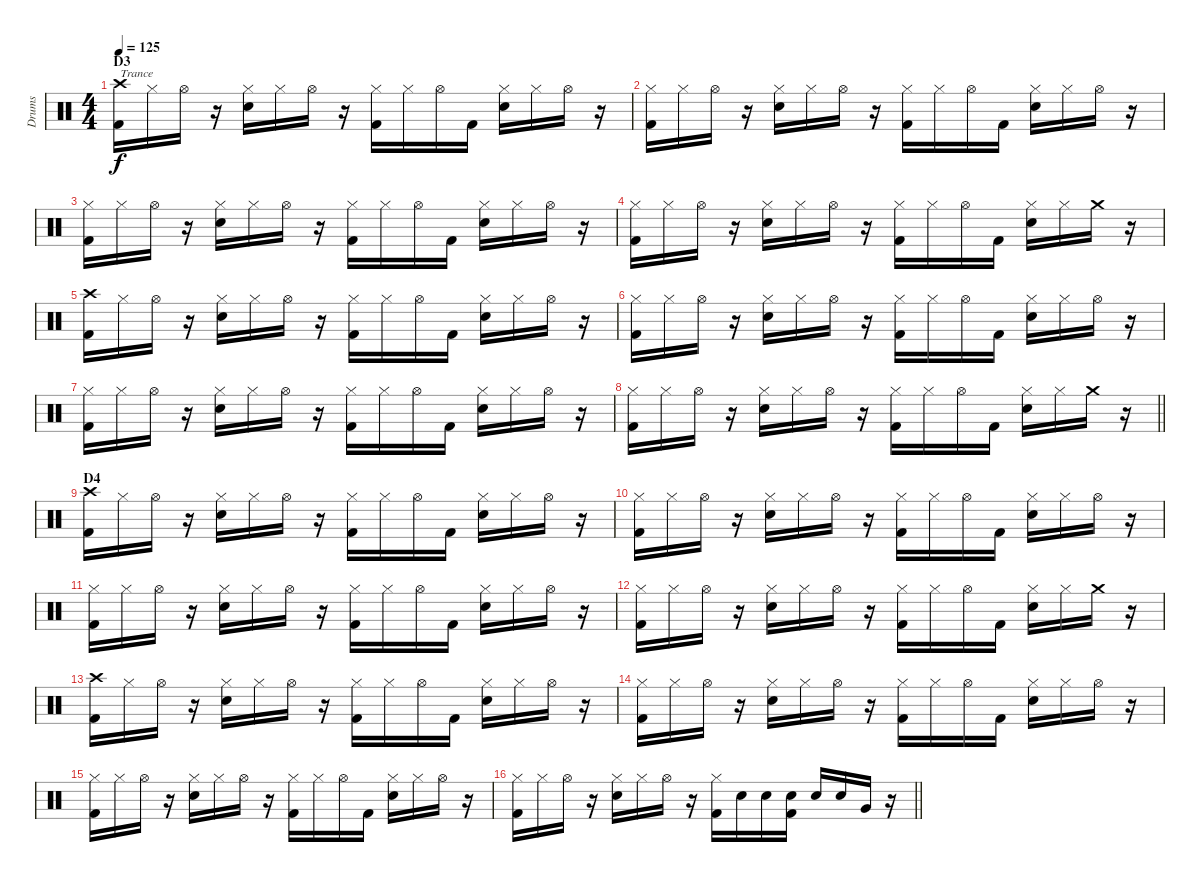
\track ("Drums" "Drums") {instrument percussion}
\staff {score}
\articulation defaults
\ts (4 4)
\section ("" "D3")
\tempo 125
\clef neutral
\ks c
("Crash high (hit)" "Kick (hit) 2").16{txt "Trance" dy f} "Hi-Hat (closed)".16 "Hi-Hat (open)".16 r.16 ("Hi-Hat (closed)" "Electric Snare (hit)").16 "Hi-Hat (closed)".16 "Hi-Hat (open)".16 r.16 ("Hi-Hat (closed)" "Kick (hit) 2").16 "Hi-Hat (closed)".16 "Hi-Hat (open)".16 "Kick (hit) 2".16 ("Hi-Hat (closed)" "Electric Snare (hit)").16 "Hi-Hat (closed)".16 "Hi-Hat (open)".16 r.16 |
("Hi-Hat (closed)" "Kick (hit) 2").16 "Hi-Hat (closed)".16 "Hi-Hat (open)".16 r.16 ("Hi-Hat (closed)" "Electric Snare (hit)").16 "Hi-Hat (closed)".16 "Hi-Hat (open)".16 r.16 ("Hi-Hat (closed)" "Kick (hit) 2").16 "Hi-Hat (closed)".16 "Hi-Hat (open)".16 "Kick (hit) 2".16 ("Hi-Hat (closed)" "Electric Snare (hit)").16 "Hi-Hat (closed)".16 "Hi-Hat (open)".16 r.16 |
("Hi-Hat (closed)" "Kick (hit) 2").16 "Hi-Hat (closed)".16 "Hi-Hat (open)".16 r.16 ("Hi-Hat (closed)" "Electric Snare (hit)").16 "Hi-Hat (closed)".16 "Hi-Hat (open)".16 r.16 ("Hi-Hat (closed)" "Kick (hit) 2").16 "Hi-Hat (closed)".16 "Hi-Hat (open)".16 "Kick (hit) 2".16 ("Hi-Hat (closed)" "Electric Snare (hit)").16 "Hi-Hat (closed)".16 "Hi-Hat (open)".16 r.16 |
("Hi-Hat (closed)" "Kick (hit) 2").16 "Hi-Hat (closed)".16 "Hi-Hat (open)".16 r.16 ("Hi-Hat (closed)" "Electric Snare (hit)").16 "Hi-Hat (closed)".16 "Hi-Hat (open)".16 r.16 ("Hi-Hat (closed)" "Kick (hit) 2").16 "Hi-Hat (closed)".16 "Hi-Hat (open)".16 "Kick (hit) 2".16 ("Hi-Hat (closed)" "Electric Snare (hit)").16 "Hi-Hat (closed)".16 "Crash medium (hit)".16 r.16 |
("Crash high (hit)" "Kick (hit) 2").16 "Hi-Hat (closed)".16 "Hi-Hat (open)".16 r.16 ("Hi-Hat (closed)" "Electric Snare (hit)").16 "Hi-Hat (closed)".16 "Hi-Hat (open)".16 r.16 ("Hi-Hat (closed)" "Kick (hit) 2").16 "Hi-Hat (closed)".16 "Hi-Hat (open)".16 "Kick (hit) 2".16 ("Hi-Hat (closed)" "Electric Snare (hit)").16 "Hi-Hat (closed)".16 "Hi-Hat (open)".16 r.16 |
("Hi-Hat (closed)" "Kick (hit) 2").16 "Hi-Hat (closed)".16 "Hi-Hat (open)".16 r.16 ("Hi-Hat (closed)" "Electric Snare (hit)").16 "Hi-Hat (closed)".16 "Hi-Hat (open)".16 r.16 ("Hi-Hat (closed)" "Kick (hit) 2").16 "Hi-Hat (closed)".16 "Hi-Hat (open)".16 "Kick (hit) 2".16 ("Hi-Hat (closed)" "Electric Snare (hit)").16 "Hi-Hat (closed)".16 "Hi-Hat (open)".16 r.16 |
("Hi-Hat (closed)" "Kick (hit) 2").16 "Hi-Hat (closed)".16 "Hi-Hat (open)".16 r.16 ("Hi-Hat (closed)" "Electric Snare (hit)").16 "Hi-Hat (closed)".16 "Hi-Hat (open)".16 r.16 ("Hi-Hat (closed)" "Kick (hit) 2").16 "Hi-Hat (closed)".16 "Hi-Hat (open)".16 "Kick (hit) 2".16 ("Hi-Hat (closed)" "Electric Snare (hit)").16 "Hi-Hat (closed)".16 "Hi-Hat (open)".16 r.16 |
\barLineRight lightlight
("Hi-Hat (closed)" "Kick (hit) 2").16 "Hi-Hat (closed)".16 "Hi-Hat (open)".16 r.16 ("Hi-Hat (closed)" "Electric Snare (hit)").16 "Hi-Hat (closed)".16 "Hi-Hat (open)".16 r.16 ("Hi-Hat (closed)" "Kick (hit) 2").16 "Hi-Hat (closed)".16 "Hi-Hat (open)".16 "Kick (hit) 2".16 ("Hi-Hat (closed)" "Electric Snare (hit)").16 "Hi-Hat (closed)".16 "Crash medium (hit)".16 r.16 |
\section ("" "D4")
("Crash high (hit)" "Kick (hit) 2").16 "Hi-Hat (closed)".16 "Hi-Hat (open)".16 r.16 ("Hi-Hat (closed)" "Electric Snare (hit)").16 "Hi-Hat (closed)".16 "Hi-Hat (open)".16 r.16 ("Hi-Hat (closed)" "Kick (hit) 2").16 "Hi-Hat (closed)".16 "Hi-Hat (open)".16 "Kick (hit) 2".16 ("Hi-Hat (closed)" "Electric Snare (hit)").16 "Hi-Hat (closed)".16 "Hi-Hat (open)".16 r.16 |
("Hi-Hat (closed)" "Kick (hit) 2").16 "Hi-Hat (closed)".16 "Hi-Hat (open)".16 r.16 ("Hi-Hat (closed)" "Electric Snare (hit)").16 "Hi-Hat (closed)".16 "Hi-Hat (open)".16 r.16 ("Hi-Hat (closed)" "Kick (hit) 2").16 "Hi-Hat (closed)".16 "Hi-Hat (open)".16 "Kick (hit) 2".16 ("Hi-Hat (closed)" "Electric Snare (hit)").16 "Hi-Hat (closed)".16 "Hi-Hat (open)".16 r.16 |
("Hi-Hat (closed)" "Kick (hit) 2").16 "Hi-Hat (closed)".16 "Hi-Hat (open)".16 r.16 ("Hi-Hat (closed)" "Electric Snare (hit)").16 "Hi-Hat (closed)".16 "Hi-Hat (open)".16 r.16 ("Hi-Hat (closed)" "Kick (hit) 2").16 "Hi-Hat (closed)".16 "Hi-Hat (open)".16 "Kick (hit) 2".16 ("Hi-Hat (closed)" "Electric Snare (hit)").16 "Hi-Hat (closed)".16 "Hi-Hat (open)".16 r.16 |
("Hi-Hat (closed)" "Kick (hit) 2").16 "Hi-Hat (closed)".16 "Hi-Hat (open)".16 r.16 ("Hi-Hat (closed)" "Electric Snare (hit)").16 "Hi-Hat (closed)".16 "Hi-Hat (open)".16 r.16 ("Hi-Hat (closed)" "Kick (hit) 2").16 "Hi-Hat (closed)".16 "Hi-Hat (open)".16 "Kick (hit) 2".16 ("Hi-Hat (closed)" "Electric Snare (hit)").16 "Hi-Hat (closed)".16 "Crash medium (hit)".16 r.16 |
("Crash high (hit)" "Kick (hit) 2").16 "Hi-Hat (closed)".16 "Hi-Hat (open)".16 r.16 ("Hi-Hat (closed)" "Electric Snare (hit)").16 "Hi-Hat (closed)".16 "Hi-Hat (open)".16 r.16 ("Hi-Hat (closed)" "Kick (hit) 2").16 "Hi-Hat (closed)".16 "Hi-Hat (open)".16 "Kick (hit) 2".16 ("Hi-Hat (closed)" "Electric Snare (hit)").16 "Hi-Hat (closed)".16 "Hi-Hat (open)".16 r.16 |
("Hi-Hat (closed)" "Kick (hit) 2").16 "Hi-Hat (closed)".16 "Hi-Hat (open)".16 r.16 ("Hi-Hat (closed)" "Electric Snare (hit)").16 "Hi-Hat (closed)".16 "Hi-Hat (open)".16 r.16 ("Hi-Hat (closed)" "Kick (hit) 2").16 "Hi-Hat (closed)".16 "Hi-Hat (open)".16 "Kick (hit) 2".16 ("Hi-Hat (closed)" "Electric Snare (hit)").16 "Hi-Hat (closed)".16 "Hi-Hat (open)".16 r.16 |
("Hi-Hat (closed)" "Kick (hit) 2").16 "Hi-Hat (closed)".16 "Hi-Hat (open)".16 r.16 ("Hi-Hat (closed)" "Electric Snare (hit)").16 "Hi-Hat (closed)".16 "Hi-Hat (open)".16 r.16 ("Hi-Hat (closed)" "Kick (hit) 2").16 "Hi-Hat (closed)".16 "Hi-Hat (open)".16 "Kick (hit) 2".16 ("Hi-Hat (closed)" "Electric Snare (hit)").16 "Hi-Hat (closed)".16 "Hi-Hat (open)".16 r.16 |
\barLineRight lightlight
("Hi-Hat (closed)" "Kick (hit) 2").16 "Hi-Hat (closed)".16 "Hi-Hat (open)".16 r.16 ("Hi-Hat (closed)" "Electric Snare (hit)").16 "Hi-Hat (closed)".16 "Hi-Hat (open)".16 r.16 ("Hi-Hat (closed)" "Kick (hit) 2").16 "Electric Snare (hit)".16 "Electric Snare (hit)".16 ("Electric Snare (hit)" "Kick (hit) 2").16 "Electric Snare (hit)".16 "Electric Snare (hit)".16 "Very Low Tom (hit)".16 r.16
